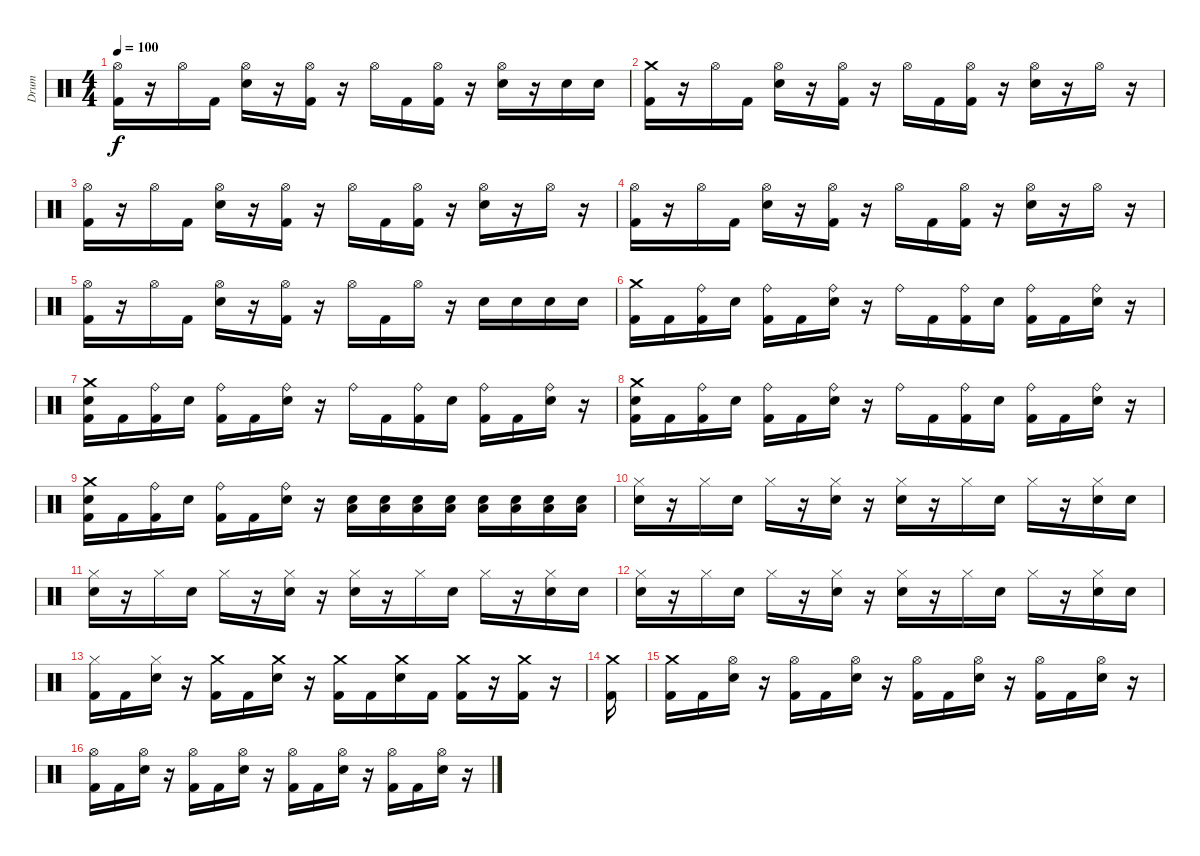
\track ("Drum" "Drum") {instrument percussion}
\staff {score}
\articulation defaults
\ts (4 4)
\tempo 100
\clef neutral
\ks c
("Hi-Hat (open)" "Kick (hit) 2").16{dy f} r.16 "Hi-Hat (open)".16 "Kick (hit) 2".16 ("Hi-Hat (open)" "Electric Snare (hit)").16 r.16 ("Hi-Hat (open)" "Kick (hit) 2").16 r.16 "Hi-Hat (open)".16 "Kick (hit) 2".16 ("Hi-Hat (open)" "Kick (hit) 2").16 r.16 ("Hi-Hat (open)" "Electric Snare (hit)").16 r.16 "Electric Snare (hit)".16 "Electric Snare (hit)".16 |
("Crash medium (hit)" "Kick (hit) 2").16 r.16 "Hi-Hat (open)".16 "Kick (hit) 2".16 ("Hi-Hat (open)" "Electric Snare (hit)").16 r.16 ("Hi-Hat (open)" "Kick (hit) 2").16 r.16 "Hi-Hat (open)".16 "Kick (hit) 2".16 ("Hi-Hat (open)" "Kick (hit) 2").16 r.16 ("Hi-Hat (open)" "Electric Snare (hit)").16 r.16 "Hi-Hat (open)".16 r.16 |
("Hi-Hat (open)" "Kick (hit) 2").16 r.16 "Hi-Hat (open)".16 "Kick (hit) 2".16 ("Hi-Hat (open)" "Electric Snare (hit)").16 r.16 ("Hi-Hat (open)" "Kick (hit) 2").16 r.16 "Hi-Hat (open)".16 "Kick (hit) 2".16 ("Hi-Hat (open)" "Kick (hit) 2").16 r.16 ("Hi-Hat (open)" "Electric Snare (hit)").16 r.16 "Hi-Hat (open)".16 r.16 |
("Hi-Hat (open)" "Kick (hit) 2").16 r.16 "Hi-Hat (open)".16 "Kick (hit) 2".16 ("Hi-Hat (open)" "Electric Snare (hit)").16 r.16 ("Hi-Hat (open)" "Kick (hit) 2").16 r.16 "Hi-Hat (open)".16 "Kick (hit) 2".16 ("Hi-Hat (open)" "Kick (hit) 2").16 r.16 ("Hi-Hat (open)" "Electric Snare (hit)").16 r.16 "Hi-Hat (open)".16 r.16 |
("Hi-Hat (open)" "Kick (hit) 2").16 r.16 "Hi-Hat (open)".16 "Kick (hit) 2".16 ("Hi-Hat (open)" "Electric Snare (hit)").16 r.16 ("Hi-Hat (open)" "Kick (hit) 2").16 r.16 "Hi-Hat (open)".16 "Kick (hit) 2".16 "Hi-Hat (open)".16 r.16 "Electric Snare (hit)".16 "Electric Snare (hit)".16 "Electric Snare (hit)".16 "Electric Snare (hit)".16 |
("Crash medium (hit)" "Kick (hit) 2").16 "Kick (hit) 2".16 ("Ride (bell)" "Kick (hit) 2").16 "Electric Snare (hit)".16 ("Ride (bell)" "Kick (hit) 2").16 "Kick (hit) 2".16 ("Ride (bell)" "Electric Snare (hit)").16 r.16 "Ride (bell)".16 "Kick (hit) 2".16 ("Ride (bell)" "Kick (hit) 2").16 "Electric Snare (hit)".16 ("Ride (bell)" "Kick (hit) 2").16 "Kick (hit) 2".16 ("Ride (bell)" "Electric Snare (hit)").16 r.16 |
("Crash medium (hit)" "Electric Snare (hit)" "Kick (hit) 2").16 "Kick (hit) 2".16 ("Ride (bell)" "Kick (hit) 2").16 "Electric Snare (hit)".16 ("Ride (bell)" "Kick (hit) 2").16 "Kick (hit) 2".16 ("Ride (bell)" "Electric Snare (hit)").16 r.16 "Ride (bell)".16 "Kick (hit) 2".16 ("Ride (bell)" "Kick (hit) 2").16 "Electric Snare (hit)".16 ("Ride (bell)" "Kick (hit) 2").16 "Kick (hit) 2".16 ("Ride (bell)" "Electric Snare (hit)").16 r.16 |
("Crash medium (hit)" "Electric Snare (hit)" "Kick (hit) 2").16 "Kick (hit) 2".16 ("Ride (bell)" "Kick (hit) 2").16 "Electric Snare (hit)".16 ("Ride (bell)" "Kick (hit) 2").16 "Kick (hit) 2".16 ("Ride (bell)" "Electric Snare (hit)").16 r.16 "Ride (bell)".16 "Kick (hit) 2".16 ("Ride (bell)" "Kick (hit) 2").16 "Electric Snare (hit)".16 ("Ride (bell)" "Kick (hit) 2").16 "Kick (hit) 2".16 ("Ride (bell)" "Electric Snare (hit)").16 r.16 |
("Crash medium (hit)" "Electric Snare (hit)" "Kick (hit) 2").16 "Kick (hit) 2".16 ("Ride (bell)" "Kick (hit) 2").16 "Electric Snare (hit)".16 ("Ride (bell)" "Kick (hit) 2").16 "Kick (hit) 2".16 ("Ride (bell)" "Electric Snare (hit)").16 r.16 ("Low Floor Tom (hit)" "Electric Snare (hit)").16 ("Low Floor Tom (hit)" "Electric Snare (hit)").16 ("Low Floor Tom (hit)" "Electric Snare (hit)").16 ("Low Floor Tom (hit)" "Electric Snare (hit)").16 ("Low Floor Tom (hit)" "Electric Snare (hit)").16 ("Low Floor Tom (hit)" "Electric Snare (hit)").16 ("Low Floor Tom (hit)" "Electric Snare (hit)").16 ("Low Floor Tom (hit)" "Electric Snare (hit)").16 |
("Hi-Hat (closed)" "Electric Snare (hit)").16 r.16 "Hi-Hat (closed)".16 "Electric Snare (hit)".16 "Hi-Hat (closed)".16 r.16 ("Hi-Hat (closed)" "Electric Snare (hit)").16 r.16 ("Hi-Hat (closed)" "Electric Snare (hit)").16 r.16 "Hi-Hat (closed)".16 "Electric Snare (hit)".16 "Hi-Hat (closed)".16 r.16 ("Hi-Hat (closed)" "Electric Snare (hit)").16 "Electric Snare (hit)".16 |
("Hi-Hat (closed)" "Electric Snare (hit)").16 r.16 "Hi-Hat (closed)".16 "Electric Snare (hit)".16 "Hi-Hat (closed)".16 r.16 ("Hi-Hat (closed)" "Electric Snare (hit)").16 r.16 ("Hi-Hat (closed)" "Electric Snare (hit)").16 r.16 "Hi-Hat (closed)".16 "Electric Snare (hit)".16 "Hi-Hat (closed)".16 r.16 ("Hi-Hat (closed)" "Electric Snare (hit)").16 "Electric Snare (hit)".16 |
("Hi-Hat (closed)" "Electric Snare (hit)").16 r.16 "Hi-Hat (closed)".16 "Electric Snare (hit)".16 "Hi-Hat (closed)".16 r.16 ("Hi-Hat (closed)" "Electric Snare (hit)").16 r.16 ("Hi-Hat (closed)" "Electric Snare (hit)").16 r.16 "Hi-Hat (closed)".16 "Electric Snare (hit)".16 "Hi-Hat (closed)".16 r.16 ("Hi-Hat (closed)" "Electric Snare (hit)").16 "Electric Snare (hit)".16 |
("Hi-Hat (closed)" "Kick (hit) 2").16 "Kick (hit) 2".16 ("Hi-Hat (closed)" "Electric Snare (hit)").16 r.16 ("Crash medium (hit)" "Kick (hit) 2").16 "Kick (hit) 2".16 ("Crash medium (hit)" "Electric Snare (hit)").16 r.16 ("Crash medium (hit)" "Kick (hit) 2").16 "Kick (hit) 2".16 ("Crash medium (hit)" "Electric Snare (hit)").16 "Kick (hit) 2".16 ("Crash medium (hit)" "Kick (hit) 2").16 r.16 ("Crash medium (hit)" "Kick (hit) 2").16 r.16 |
("Crash medium (hit)" "Kick (hit) 2").16 |
("Crash medium (hit)" "Kick (hit) 2").16 "Kick (hit) 2".16 ("Hi-Hat (open)" "Electric Snare (hit)").16 r.16 ("Hi-Hat (open)" "Kick (hit) 2").16 "Kick (hit) 2".16 ("Hi-Hat (open)" "Electric Snare (hit)").16 r.16 ("Hi-Hat (open)" "Kick (hit) 2").16 "Kick (hit) 2".16 ("Hi-Hat (open)" "Electric Snare (hit)").16 r.16 ("Hi-Hat (open)" "Kick (hit) 2").16 "Kick (hit) 2".16 ("Hi-Hat (open)" "Electric Snare (hit)").16 r.16 |
("Hi-Hat (open)" "Kick (hit) 2").16 "Kick (hit) 2".16 ("Hi-Hat (open)" "Electric Snare (hit)").16 r.16 ("Hi-Hat (open)" "Kick (hit) 2").16 "Kick (hit) 2".16 ("Hi-Hat (open)" "Electric Snare (hit)").16 r.16 ("Hi-Hat (open)" "Kick (hit) 2").16 "Kick (hit) 2".16 ("Hi-Hat (open)" "Electric Snare (hit)").16 r.16 ("Hi-Hat (open)" "Kick (hit) 2").16 "Kick (hit) 2".16 ("Hi-Hat (open)" "Electric Snare (hit)").16 r.16
